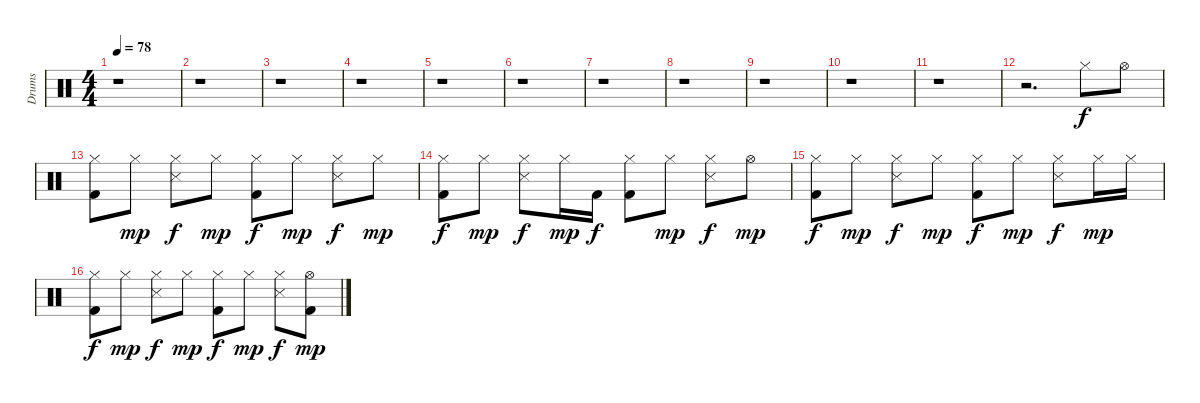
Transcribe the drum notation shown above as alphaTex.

\track ("Drums" "Drums") {instrument percussion}
\staff {score}
\articulation defaults
\ts (4 4)
\tempo 78
\clef neutral
\ks c
r.1{dy f} |
r.1 |
r.1 |
r.1 |
r.1 |
r.1 |
r.1 |
r.1 |
r.1 |
r.1 |
r.1 |
r.2{d} "Hi-Hat (closed)".8 "Hi-Hat (open)".8 |
("Hi-Hat (closed)" "Kick (hit) 2").8 "Hi-Hat (closed)".8{dy mp} ("Hi-Hat (closed)" "Snare (side stick) 3").8{dy f} "Hi-Hat (closed)".8{dy mp} ("Hi-Hat (closed)" "Kick (hit) 2").8{dy f} "Hi-Hat (closed)".8{dy mp} ("Hi-Hat (closed)" "Snare (side stick) 3").8{dy f} "Hi-Hat (closed)".8{dy mp} |
("Hi-Hat (closed)" "Kick (hit) 2").8{dy f} "Hi-Hat (closed)".8{dy mp} ("Hi-Hat (closed)" "Snare (side stick) 3").8{dy f} "Hi-Hat (closed)".16{dy mp} "Kick (hit) 2".16{dy f} ("Hi-Hat (closed)" "Kick (hit) 2").8 "Hi-Hat (closed)".8{dy mp} ("Hi-Hat (closed)" "Snare (side stick) 3").8{dy f} "Hi-Hat (open)".8{dy mp} |
("Hi-Hat (closed)" "Kick (hit) 2").8{dy f} "Hi-Hat (closed)".8{dy mp} ("Hi-Hat (closed)" "Snare (side stick) 3").8{dy f} "Hi-Hat (closed)".8{dy mp} ("Hi-Hat (closed)" "Kick (hit) 2").8{dy f} "Hi-Hat (closed)".8{dy mp} ("Hi-Hat (closed)" "Snare (side stick) 3").8{dy f} "Hi-Hat (closed)".16{dy mp} "Hi-Hat (closed)".16 |
("Hi-Hat (closed)" "Kick (hit) 2").8{dy f} "Hi-Hat (closed)".8{dy mp} ("Hi-Hat (closed)" "Snare (side stick) 3").8{dy f} "Hi-Hat (closed)".8{dy mp} ("Hi-Hat (closed)" "Kick (hit) 2").8{dy f} "Hi-Hat (closed)".8{dy mp} ("Hi-Hat (closed)" "Snare (side stick) 3").8{dy f} ("Hi-Hat (open)" "Kick (hit) 2").8{dy mp}
